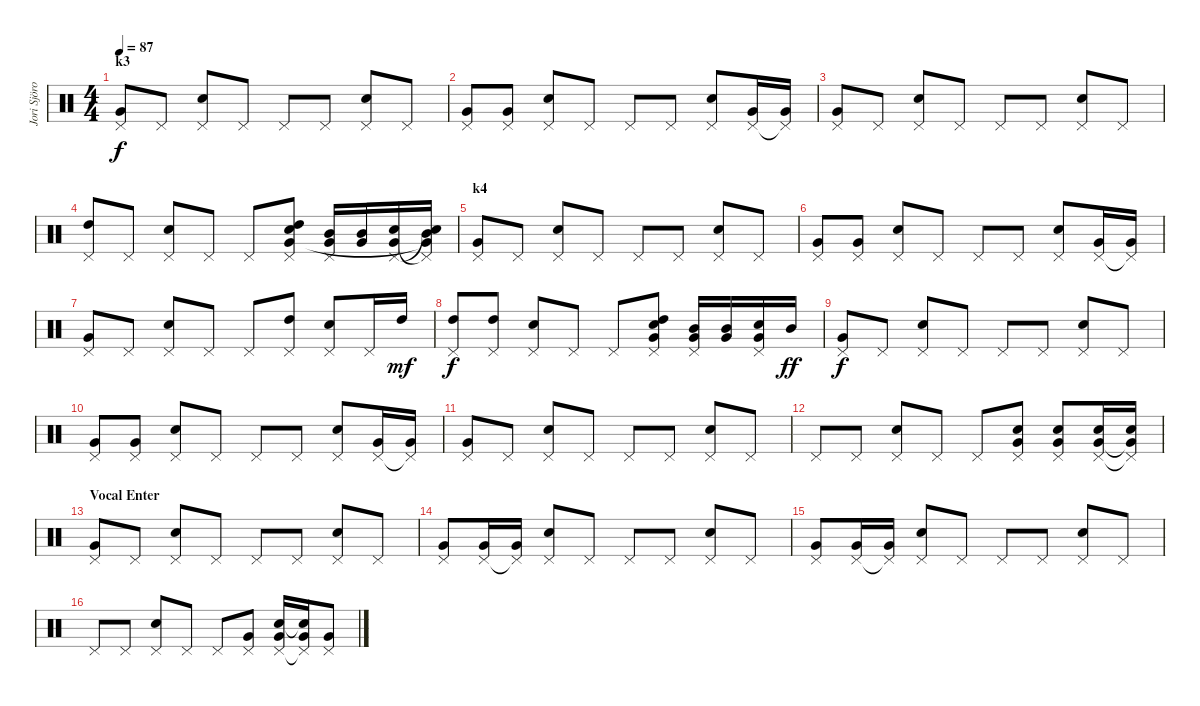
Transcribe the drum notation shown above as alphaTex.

\track ("Jori Sjöroos" "Jori Sjöro") {instrument percussion}
\staff {score}
\articulation defaults
\ts (4 4)
\section ("" "k3")
\tempo 87
\clef neutral
\ks c
("Pedal Hi-Hat (hit)" "Very Low Tom (hit)").8{dy f} "Pedal Hi-Hat (hit)".8 ("Snare (hit) 2" "Pedal Hi-Hat (hit)").8 "Pedal Hi-Hat (hit)".8 "Pedal Hi-Hat (hit)".8 "Pedal Hi-Hat (hit)".8 ("Snare (hit) 2" "Pedal Hi-Hat (hit)").8 "Pedal Hi-Hat (hit)".8 |
("Pedal Hi-Hat (hit)" "Very Low Tom (hit)").8 ("Pedal Hi-Hat (hit)" "Very Low Tom (hit)").8 ("Snare (hit) 2" "Pedal Hi-Hat (hit)").8 "Pedal Hi-Hat (hit)".8 "Pedal Hi-Hat (hit)".8 "Pedal Hi-Hat (hit)".8 ("Snare (hit) 2" "Pedal Hi-Hat (hit)").8 ("Pedal Hi-Hat (hit)" "Very Low Tom (hit)").16 ("Pedal Hi-Hat (hit)"{t} "Very Low Tom (hit)").16 |
("Pedal Hi-Hat (hit)" "Very Low Tom (hit)").8 "Pedal Hi-Hat (hit)".8 ("Snare (hit) 2" "Pedal Hi-Hat (hit)").8 "Pedal Hi-Hat (hit)".8 "Pedal Hi-Hat (hit)".8 "Pedal Hi-Hat (hit)".8 ("Snare (hit) 2" "Pedal Hi-Hat (hit)").8 "Pedal Hi-Hat (hit)".8 |
("High Tom (hit)" "Pedal Hi-Hat (hit)").8 "Pedal Hi-Hat (hit)".8 ("Snare (hit) 2" "Pedal Hi-Hat (hit)").8 "Pedal Hi-Hat (hit)".8 "Pedal Hi-Hat (hit)".8 ("High Tom (hit)" "Snare (hit) 2" "Pedal Hi-Hat (hit)" "Very Low Tom (hit)").8 ("Mid Tom (hit)" "Pedal Hi-Hat (hit)" "Very Low Tom (hit)").16 ("Mid Tom (hit)" "Very Low Tom (hit)").16 ("Snare (hit) 2" "Pedal Hi-Hat (hit)" "Very Low Tom (hit)").16 ("Mid Tom (hit)" "Snare (hit) 2"{t} "Pedal Hi-Hat (hit)"{t} "Very Low Tom (hit)"{t}).16 |
\section ("" "k4")
("Pedal Hi-Hat (hit)" "Very Low Tom (hit)").8 "Pedal Hi-Hat (hit)".8 ("Snare (hit) 2" "Pedal Hi-Hat (hit)").8 "Pedal Hi-Hat (hit)".8 "Pedal Hi-Hat (hit)".8 "Pedal Hi-Hat (hit)".8 ("Snare (hit) 2" "Pedal Hi-Hat (hit)").8 "Pedal Hi-Hat (hit)".8 |
("Pedal Hi-Hat (hit)" "Very Low Tom (hit)").8 ("Pedal Hi-Hat (hit)" "Very Low Tom (hit)").8 ("Snare (hit) 2" "Pedal Hi-Hat (hit)").8 "Pedal Hi-Hat (hit)".8 "Pedal Hi-Hat (hit)".8 "Pedal Hi-Hat (hit)".8 ("Snare (hit) 2" "Pedal Hi-Hat (hit)").8 ("Pedal Hi-Hat (hit)" "Very Low Tom (hit)").16 ("Pedal Hi-Hat (hit)"{t} "Very Low Tom (hit)").16 |
("Pedal Hi-Hat (hit)" "Very Low Tom (hit)").8 "Pedal Hi-Hat (hit)".8 ("Snare (hit) 2" "Pedal Hi-Hat (hit)").8 "Pedal Hi-Hat (hit)".8 "Pedal Hi-Hat (hit)".8 ("High Tom (hit)" "Pedal Hi-Hat (hit)").8 ("Snare (hit) 2" "Pedal Hi-Hat (hit)").8 "Pedal Hi-Hat (hit)".16 "High Tom (hit)".16{dy mf} |
("High Tom (hit)" "Pedal Hi-Hat (hit)").8{dy f} ("High Tom (hit)" "Pedal Hi-Hat (hit)").8 ("Snare (hit) 2" "Pedal Hi-Hat (hit)").8 "Pedal Hi-Hat (hit)".8 "Pedal Hi-Hat (hit)".8 ("High Tom (hit)" "Snare (hit) 2" "Pedal Hi-Hat (hit)" "Very Low Tom (hit)").8 ("Mid Tom (hit)" "Pedal Hi-Hat (hit)" "Very Low Tom (hit)").16 ("Mid Tom (hit)" "Very Low Tom (hit)").16 ("Snare (hit) 2" "Pedal Hi-Hat (hit)" "Very Low Tom (hit)").16 "Mid Tom (hit)".16{dy ff} |
("Pedal Hi-Hat (hit)" "Very Low Tom (hit)").8{dy f} "Pedal Hi-Hat (hit)".8 ("Snare (hit) 2" "Pedal Hi-Hat (hit)").8 "Pedal Hi-Hat (hit)".8 "Pedal Hi-Hat (hit)".8 "Pedal Hi-Hat (hit)".8 ("Snare (hit) 2" "Pedal Hi-Hat (hit)").8 "Pedal Hi-Hat (hit)".8 |
("Pedal Hi-Hat (hit)" "Very Low Tom (hit)").8 ("Pedal Hi-Hat (hit)" "Very Low Tom (hit)").8 ("Snare (hit) 2" "Pedal Hi-Hat (hit)").8 "Pedal Hi-Hat (hit)".8 "Pedal Hi-Hat (hit)".8 "Pedal Hi-Hat (hit)".8 ("Snare (hit) 2" "Pedal Hi-Hat (hit)").8 ("Pedal Hi-Hat (hit)" "Very Low Tom (hit)").16 ("Pedal Hi-Hat (hit)"{t} "Very Low Tom (hit)").16 |
("Pedal Hi-Hat (hit)" "Very Low Tom (hit)").8 "Pedal Hi-Hat (hit)".8 ("Snare (hit) 2" "Pedal Hi-Hat (hit)").8 "Pedal Hi-Hat (hit)".8 "Pedal Hi-Hat (hit)".8 "Pedal Hi-Hat (hit)".8 ("Snare (hit) 2" "Pedal Hi-Hat (hit)").8 "Pedal Hi-Hat (hit)".8 |
"Pedal Hi-Hat (hit)".8 "Pedal Hi-Hat (hit)".8 ("Snare (hit) 2" "Pedal Hi-Hat (hit)").8 "Pedal Hi-Hat (hit)".8 "Pedal Hi-Hat (hit)".8 ("Snare (hit) 2" "Pedal Hi-Hat (hit)" "Very Low Tom (hit)").8 ("Snare (hit) 2" "Pedal Hi-Hat (hit)" "Very Low Tom (hit)").8 ("Snare (hit) 2" "Pedal Hi-Hat (hit)" "Very Low Tom (hit)").16 ("Snare (hit) 2" "Pedal Hi-Hat (hit)"{t} "Very Low Tom (hit)"{t}).16 |
\section ("" "Vocal Enter")
("Pedal Hi-Hat (hit)" "Very Low Tom (hit)").8 "Pedal Hi-Hat (hit)".8 ("Snare (hit) 2" "Pedal Hi-Hat (hit)").8 "Pedal Hi-Hat (hit)".8 "Pedal Hi-Hat (hit)".8 "Pedal Hi-Hat (hit)".8 ("Snare (hit) 2" "Pedal Hi-Hat (hit)").8 "Pedal Hi-Hat (hit)".8 |
("Pedal Hi-Hat (hit)" "Very Low Tom (hit)").8 ("Pedal Hi-Hat (hit)" "Very Low Tom (hit)").16 ("Pedal Hi-Hat (hit)"{t} "Very Low Tom (hit)").16 ("Snare (hit) 2" "Pedal Hi-Hat (hit)").8 "Pedal Hi-Hat (hit)".8 "Pedal Hi-Hat (hit)".8 "Pedal Hi-Hat (hit)".8 ("Snare (hit) 2" "Pedal Hi-Hat (hit)").8 "Pedal Hi-Hat (hit)".8 |
("Pedal Hi-Hat (hit)" "Very Low Tom (hit)").8 ("Pedal Hi-Hat (hit)" "Very Low Tom (hit)").16 ("Pedal Hi-Hat (hit)"{t} "Very Low Tom (hit)").16 ("Snare (hit) 2" "Pedal Hi-Hat (hit)").8 "Pedal Hi-Hat (hit)".8 "Pedal Hi-Hat (hit)".8 "Pedal Hi-Hat (hit)".8 ("Snare (hit) 2" "Pedal Hi-Hat (hit)").8 "Pedal Hi-Hat (hit)".8 |
"Pedal Hi-Hat (hit)".8 "Pedal Hi-Hat (hit)".8 ("Snare (hit) 2" "Pedal Hi-Hat (hit)").8 "Pedal Hi-Hat (hit)".8 "Pedal Hi-Hat (hit)".8 ("Pedal Hi-Hat (hit)" "Very Low Tom (hit)").8 ("Snare (hit) 2" "Pedal Hi-Hat (hit)" "Very Low Tom (hit)").16 ("Snare (hit) 2"{t} "Pedal Hi-Hat (hit)"{t} "Very Low Tom (hit)").16 ("Pedal Hi-Hat (hit)" "Very Low Tom (hit)").8
